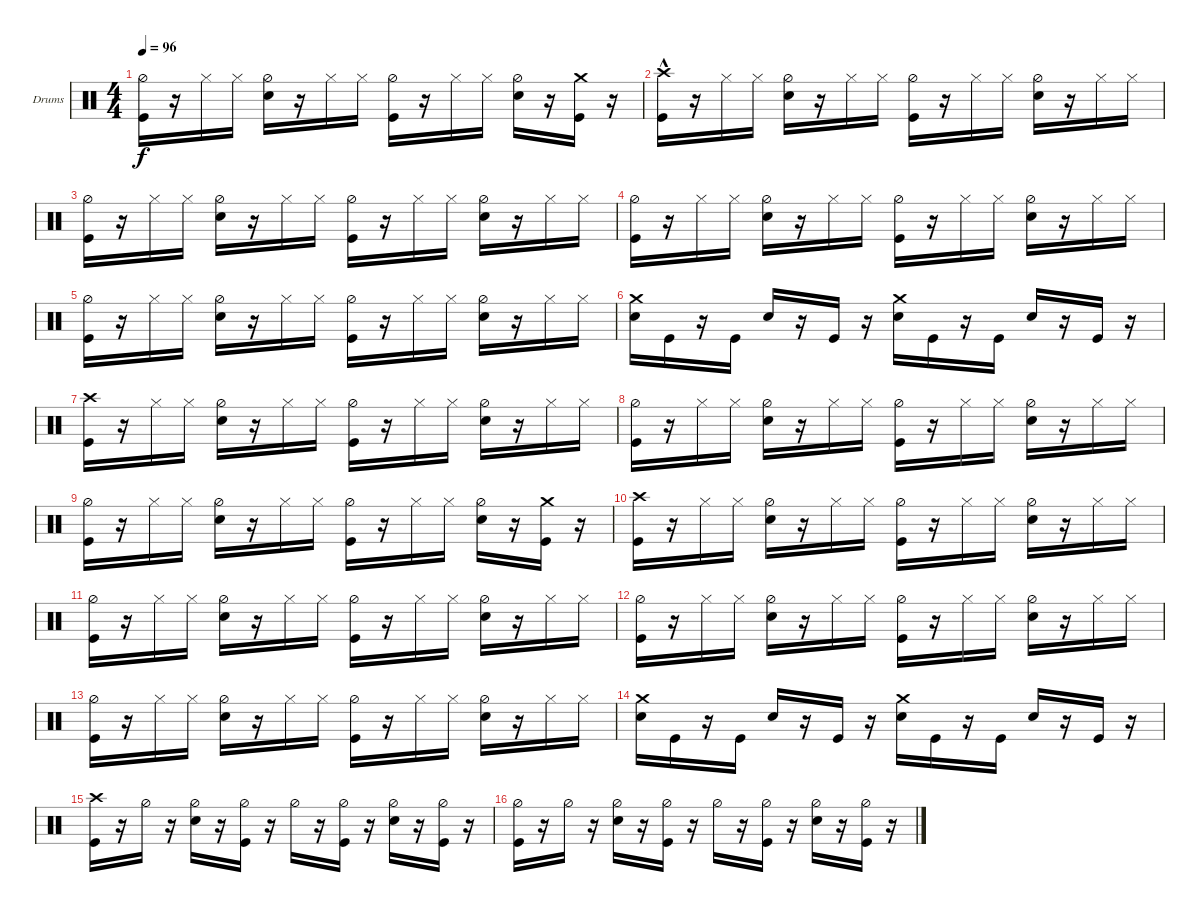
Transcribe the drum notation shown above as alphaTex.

\defaultSystemsLayout 4
\bracketExtendMode groupsimilarinstruments
\firstSystemTrackNameOrientation horizontal
\otherSystemsTrackNameOrientation horizontal
\track ("Stefan Schwarzmann" "Drums") {instrument percussion}
\staff {score}
\articulation defaults
\ts (4 4)
\tempo 96
\clef neutral
\ks c
("Kick (hit)" "Hi-Hat (half)").16{dy f} r.16 "Hi-Hat (closed)".16 "Hi-Hat (closed)".16 ("Snare (hit) 2" "Hi-Hat (half)").16 r.16 "Hi-Hat (closed)".16 "Hi-Hat (closed)".16 ("Kick (hit)" "Hi-Hat (half)").16 r.16 "Hi-Hat (closed)".16 "Hi-Hat (closed)".16 ("Snare (hit) 2" "Hi-Hat (half)").16 r.16 ("Crash medium (hit)" "Kick (hit)").16 r.16 |
("Kick (hit)" "Crash high (hit)"{hac}).16 r.16 "Hi-Hat (closed)".16 "Hi-Hat (closed)".16 ("Snare (hit) 2" "Hi-Hat (half)").16 r.16 "Hi-Hat (closed)".16 "Hi-Hat (closed)".16 ("Kick (hit)" "Hi-Hat (half)").16 r.16 "Hi-Hat (closed)".16 "Hi-Hat (closed)".16 ("Snare (hit) 2" "Hi-Hat (half)").16 r.16 "Hi-Hat (closed)".16 "Hi-Hat (closed)".16 |
("Kick (hit)" "Hi-Hat (half)").16 r.16 "Hi-Hat (closed)".16 "Hi-Hat (closed)".16 ("Snare (hit) 2" "Hi-Hat (half)").16 r.16 "Hi-Hat (closed)".16 "Hi-Hat (closed)".16 ("Kick (hit)" "Hi-Hat (half)").16 r.16 "Hi-Hat (closed)".16 "Hi-Hat (closed)".16 ("Snare (hit) 2" "Hi-Hat (half)").16 r.16 "Hi-Hat (closed)".16 "Hi-Hat (closed)".16 |
("Kick (hit)" "Hi-Hat (half)").16 r.16 "Hi-Hat (closed)".16 "Hi-Hat (closed)".16 ("Snare (hit) 2" "Hi-Hat (half)").16 r.16 "Hi-Hat (closed)".16 "Hi-Hat (closed)".16 ("Kick (hit)" "Hi-Hat (half)").16 r.16 "Hi-Hat (closed)".16 "Hi-Hat (closed)".16 ("Snare (hit) 2" "Hi-Hat (half)").16 r.16 "Hi-Hat (closed)".16 "Hi-Hat (closed)".16 |
("Kick (hit)" "Hi-Hat (half)").16 r.16 "Hi-Hat (closed)".16 "Hi-Hat (closed)".16 ("Snare (hit) 2" "Hi-Hat (half)").16 r.16 "Hi-Hat (closed)".16 "Hi-Hat (closed)".16 ("Kick (hit)" "Hi-Hat (half)").16 r.16 "Hi-Hat (closed)".16 "Hi-Hat (closed)".16 ("Snare (hit) 2" "Hi-Hat (half)").16 r.16 "Hi-Hat (closed)".16 "Hi-Hat (closed)".16 |
("Snare (hit) 2" "Crash medium (hit)").16 "Kick (hit)".16 r.16 "Kick (hit)".16 "Snare (hit) 2".16 r.16 "Kick (hit)".16 r.16 ("Snare (hit) 2" "Crash medium (hit)").16 "Kick (hit)".16 r.16 "Kick (hit)".16 "Snare (hit) 2".16 r.16 "Kick (hit)".16 r.16 |
("Kick (hit)" "Crash high (hit)").16 r.16 "Hi-Hat (closed)".16 "Hi-Hat (closed)".16 ("Snare (hit) 2" "Hi-Hat (half)").16 r.16 "Hi-Hat (closed)".16 "Hi-Hat (closed)".16 ("Kick (hit)" "Hi-Hat (half)").16 r.16 "Hi-Hat (closed)".16 "Hi-Hat (closed)".16 ("Snare (hit) 2" "Hi-Hat (half)").16 r.16 "Hi-Hat (closed)".16 "Hi-Hat (closed)".16 |
("Kick (hit)" "Hi-Hat (half)").16 r.16 "Hi-Hat (closed)".16 "Hi-Hat (closed)".16 ("Snare (hit) 2" "Hi-Hat (half)").16 r.16 "Hi-Hat (closed)".16 "Hi-Hat (closed)".16 ("Kick (hit)" "Hi-Hat (half)").16 r.16 "Hi-Hat (closed)".16 "Hi-Hat (closed)".16 ("Snare (hit) 2" "Hi-Hat (half)").16 r.16 "Hi-Hat (closed)".16 "Hi-Hat (closed)".16 |
("Kick (hit)" "Hi-Hat (half)").16 r.16 "Hi-Hat (closed)".16 "Hi-Hat (closed)".16 ("Snare (hit) 2" "Hi-Hat (half)").16 r.16 "Hi-Hat (closed)".16 "Hi-Hat (closed)".16 ("Kick (hit)" "Hi-Hat (half)").16 r.16 "Hi-Hat (closed)".16 "Hi-Hat (closed)".16 ("Snare (hit) 2" "Hi-Hat (half)").16 r.16 ("Crash medium (hit)" "Kick (hit)").16 r.16 |
("Kick (hit)" "Crash high (hit)").16 r.16 "Hi-Hat (closed)".16 "Hi-Hat (closed)".16 ("Snare (hit) 2" "Hi-Hat (half)").16 r.16 "Hi-Hat (closed)".16 "Hi-Hat (closed)".16 ("Kick (hit)" "Hi-Hat (half)").16 r.16 "Hi-Hat (closed)".16 "Hi-Hat (closed)".16 ("Snare (hit) 2" "Hi-Hat (half)").16 r.16 "Hi-Hat (closed)".16 "Hi-Hat (closed)".16 |
("Kick (hit)" "Hi-Hat (half)").16 r.16 "Hi-Hat (closed)".16 "Hi-Hat (closed)".16 ("Snare (hit) 2" "Hi-Hat (half)").16 r.16 "Hi-Hat (closed)".16 "Hi-Hat (closed)".16 ("Kick (hit)" "Hi-Hat (half)").16 r.16 "Hi-Hat (closed)".16 "Hi-Hat (closed)".16 ("Snare (hit) 2" "Hi-Hat (half)").16 r.16 "Hi-Hat (closed)".16 "Hi-Hat (closed)".16 |
("Kick (hit)" "Hi-Hat (half)").16 r.16 "Hi-Hat (closed)".16 "Hi-Hat (closed)".16 ("Snare (hit) 2" "Hi-Hat (half)").16 r.16 "Hi-Hat (closed)".16 "Hi-Hat (closed)".16 ("Kick (hit)" "Hi-Hat (half)").16 r.16 "Hi-Hat (closed)".16 "Hi-Hat (closed)".16 ("Snare (hit) 2" "Hi-Hat (half)").16 r.16 "Hi-Hat (closed)".16 "Hi-Hat (closed)".16 |
("Kick (hit)" "Hi-Hat (half)").16 r.16 "Hi-Hat (closed)".16 "Hi-Hat (closed)".16 ("Snare (hit) 2" "Hi-Hat (half)").16 r.16 "Hi-Hat (closed)".16 "Hi-Hat (closed)".16 ("Kick (hit)" "Hi-Hat (half)").16 r.16 "Hi-Hat (closed)".16 "Hi-Hat (closed)".16 ("Snare (hit) 2" "Hi-Hat (half)").16 r.16 "Hi-Hat (closed)".16 "Hi-Hat (closed)".16 |
("Snare (hit) 2" "Crash medium (hit)").16 "Kick (hit)".16 r.16 "Kick (hit)".16 "Snare (hit) 2".16 r.16 "Kick (hit)".16 r.16 ("Snare (hit) 2" "Crash medium (hit)").16 "Kick (hit)".16 r.16 "Kick (hit)".16 "Snare (hit) 2".16 r.16 "Kick (hit)".16 r.16 |
("Kick (hit)" "Crash high (hit)").16 r.16 "Hi-Hat (half)".16 r.16 ("Snare (hit) 2" "Hi-Hat (half)").16 r.16 ("Hi-Hat (half)" "Kick (hit)").16 r.16 "Hi-Hat (half)".16 r.16 ("Hi-Hat (half)" "Kick (hit)").16 r.16 ("Snare (hit) 2" "Hi-Hat (half)").16 r.16 ("Hi-Hat (half)" "Kick (hit)").16 r.16 |
("Kick (hit)" "Hi-Hat (half)").16 r.16 "Hi-Hat (half)".16 r.16 ("Snare (hit) 2" "Hi-Hat (half)").16 r.16 ("Hi-Hat (half)" "Kick (hit)").16 r.16 "Hi-Hat (half)".16 r.16 ("Hi-Hat (half)" "Kick (hit)").16 r.16 ("Snare (hit) 2" "Hi-Hat (half)").16 r.16 ("Hi-Hat (half)" "Kick (hit)").16 r.16
